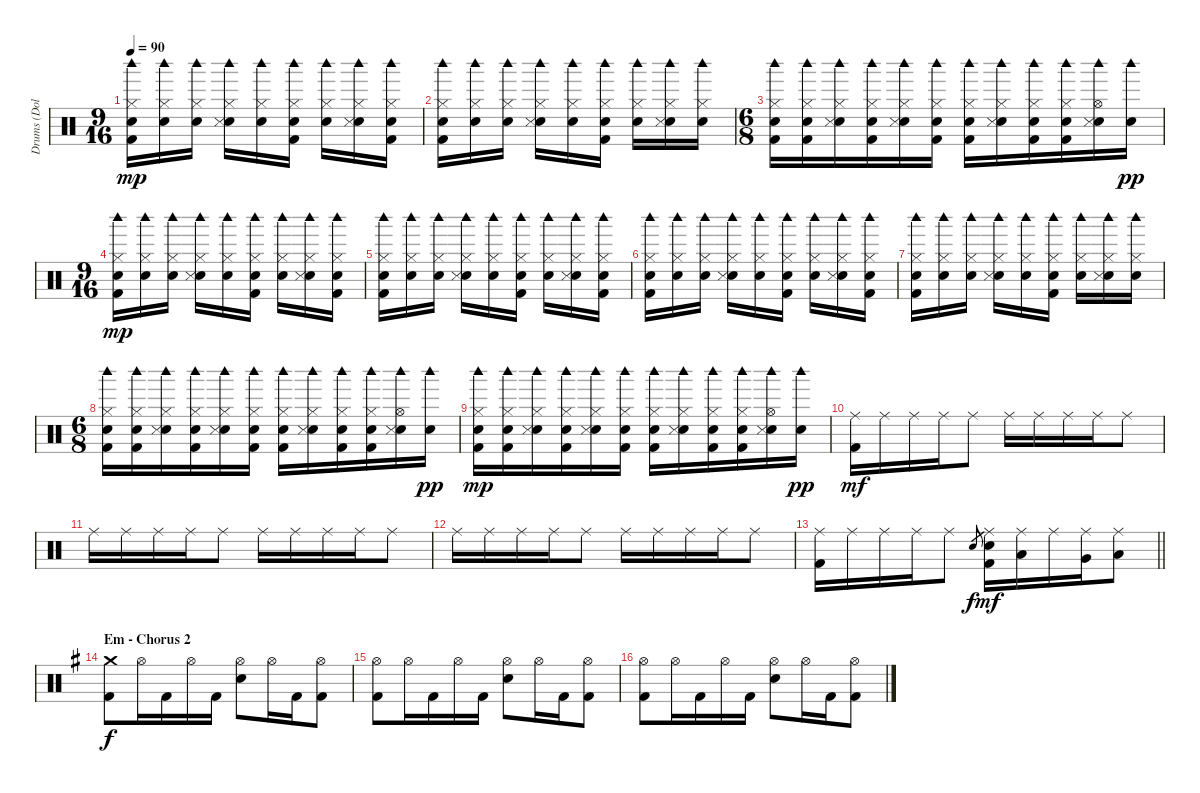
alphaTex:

\track ("Drums (Dolmayan)" "Drums (Dol") {instrument percussion}
\staff {score}
\articulation defaults
\ts (9 16)
\tempo 90
\clef neutral
\ks aminor
("Woodblock high (hit)" "Hand Clap (hit)" "Hi-Hat (closed)" "Kick (hit) 2").16{dy mp} ("Woodblock high (hit)" "Hand Clap (hit)" "Hi-Hat (closed)").16 ("Woodblock high (hit)" "Hand Clap (hit)" "Hi-Hat (closed)").16 ("Woodblock high (hit)" "Hand Clap (hit)" "Hi-Hat (closed)" "Snare (side stick) 3").16 ("Woodblock high (hit)" "Hand Clap (hit)" "Hi-Hat (closed)").16 ("Woodblock high (hit)" "Hand Clap (hit)" "Hi-Hat (closed)" "Kick (hit) 2").16 ("Woodblock high (hit)" "Hand Clap (hit)" "Hi-Hat (closed)").16 ("Woodblock high (hit)" "Hand Clap (hit)" "Hi-Hat (closed)" "Snare (side stick) 3").16 ("Woodblock high (hit)" "Hand Clap (hit)" "Hi-Hat (closed)" "Kick (hit) 2").16 |
("Woodblock high (hit)" "Hand Clap (hit)" "Hi-Hat (closed)" "Kick (hit) 2").16 ("Woodblock high (hit)" "Hand Clap (hit)" "Hi-Hat (closed)").16 ("Woodblock high (hit)" "Hand Clap (hit)" "Hi-Hat (closed)").16 ("Woodblock high (hit)" "Hand Clap (hit)" "Hi-Hat (closed)" "Snare (side stick) 3").16 ("Woodblock high (hit)" "Hand Clap (hit)" "Hi-Hat (closed)").16 ("Woodblock high (hit)" "Hand Clap (hit)" "Hi-Hat (closed)" "Kick (hit) 2").16 ("Woodblock high (hit)" "Hand Clap (hit)" "Hi-Hat (closed)").16 ("Woodblock high (hit)" "Hand Clap (hit)" "Hi-Hat (closed)" "Snare (side stick) 3").16 ("Woodblock high (hit)" "Hand Clap (hit)" "Hi-Hat (closed)").16 |
\ts (6 8)
("Woodblock high (hit)" "Hand Clap (hit)" "Hi-Hat (closed)" "Kick (hit) 2").16 ("Woodblock high (hit)" "Hand Clap (hit)" "Hi-Hat (closed)" "Kick (hit) 2").16 ("Woodblock high (hit)" "Hand Clap (hit)" "Hi-Hat (closed)" "Snare (side stick) 3").16 ("Woodblock high (hit)" "Hand Clap (hit)" "Hi-Hat (closed)" "Kick (hit) 2").16 ("Woodblock high (hit)" "Hand Clap (hit)" "Hi-Hat (closed)" "Snare (side stick) 3").16 ("Woodblock high (hit)" "Hand Clap (hit)" "Hi-Hat (closed)" "Kick (hit) 2").16 ("Woodblock high (hit)" "Hand Clap (hit)" "Hi-Hat (closed)" "Kick (hit) 2").16 ("Woodblock high (hit)" "Hand Clap (hit)" "Hi-Hat (closed)" "Snare (side stick) 3").16 ("Woodblock high (hit)" "Hand Clap (hit)" "Hi-Hat (closed)" "Kick (hit) 2").16 ("Woodblock high (hit)" "Hand Clap (hit)" "Hi-Hat (closed)" "Kick (hit) 2").16 ("Woodblock high (hit)" "Hand Clap (hit)" "Hi-Hat (open)" "Snare (side stick) 3").16 ("Woodblock high (hit)" "Hand Clap (hit)").16{dy pp} |
\ts (9 16)
("Woodblock high (hit)" "Hand Clap (hit)" "Hi-Hat (closed)" "Kick (hit) 2").16{dy mp} ("Woodblock high (hit)" "Hand Clap (hit)" "Hi-Hat (closed)").16 ("Woodblock high (hit)" "Hand Clap (hit)" "Hi-Hat (closed)").16 ("Woodblock high (hit)" "Hand Clap (hit)" "Hi-Hat (closed)" "Snare (side stick) 3").16 ("Woodblock high (hit)" "Hand Clap (hit)" "Hi-Hat (closed)").16 ("Woodblock high (hit)" "Hand Clap (hit)" "Hi-Hat (closed)" "Kick (hit) 2").16 ("Woodblock high (hit)" "Hand Clap (hit)" "Hi-Hat (closed)").16 ("Woodblock high (hit)" "Hand Clap (hit)" "Hi-Hat (closed)" "Snare (side stick) 3").16 ("Woodblock high (hit)" "Hand Clap (hit)" "Hi-Hat (closed)" "Kick (hit) 2").16 |
("Woodblock high (hit)" "Hand Clap (hit)" "Hi-Hat (closed)" "Kick (hit) 2").16 ("Woodblock high (hit)" "Hand Clap (hit)" "Hi-Hat (closed)").16 ("Woodblock high (hit)" "Hand Clap (hit)" "Hi-Hat (closed)").16 ("Woodblock high (hit)" "Hand Clap (hit)" "Hi-Hat (closed)" "Snare (side stick) 3").16 ("Woodblock high (hit)" "Hand Clap (hit)" "Hi-Hat (closed)").16 ("Woodblock high (hit)" "Hand Clap (hit)" "Hi-Hat (closed)" "Kick (hit) 2").16 ("Woodblock high (hit)" "Hand Clap (hit)" "Hi-Hat (closed)").16 ("Woodblock high (hit)" "Hand Clap (hit)" "Hi-Hat (closed)" "Snare (side stick) 3").16 ("Woodblock high (hit)" "Hand Clap (hit)" "Hi-Hat (closed)" "Kick (hit) 2").16 |
("Woodblock high (hit)" "Hand Clap (hit)" "Hi-Hat (closed)" "Kick (hit) 2").16 ("Woodblock high (hit)" "Hand Clap (hit)" "Hi-Hat (closed)").16 ("Woodblock high (hit)" "Hand Clap (hit)" "Hi-Hat (closed)").16 ("Woodblock high (hit)" "Hand Clap (hit)" "Hi-Hat (closed)" "Snare (side stick) 3").16 ("Woodblock high (hit)" "Hand Clap (hit)" "Hi-Hat (closed)").16 ("Woodblock high (hit)" "Hand Clap (hit)" "Hi-Hat (closed)" "Kick (hit) 2").16 ("Woodblock high (hit)" "Hand Clap (hit)" "Hi-Hat (closed)").16 ("Woodblock high (hit)" "Hand Clap (hit)" "Hi-Hat (closed)" "Snare (side stick) 3").16 ("Woodblock high (hit)" "Hand Clap (hit)" "Hi-Hat (closed)" "Kick (hit) 2").16 |
("Woodblock high (hit)" "Hand Clap (hit)" "Hi-Hat (closed)" "Kick (hit) 2").16 ("Woodblock high (hit)" "Hand Clap (hit)" "Hi-Hat (closed)").16 ("Woodblock high (hit)" "Hand Clap (hit)" "Hi-Hat (closed)").16 ("Woodblock high (hit)" "Hand Clap (hit)" "Hi-Hat (closed)" "Snare (side stick) 3").16 ("Woodblock high (hit)" "Hand Clap (hit)" "Hi-Hat (closed)").16 ("Woodblock high (hit)" "Hand Clap (hit)" "Hi-Hat (closed)" "Kick (hit) 2").16 ("Woodblock high (hit)" "Hand Clap (hit)" "Hi-Hat (closed)").16 ("Woodblock high (hit)" "Hand Clap (hit)" "Hi-Hat (closed)" "Snare (side stick) 3").16 ("Woodblock high (hit)" "Hand Clap (hit)" "Hi-Hat (closed)").16 |
\ts (6 8)
("Woodblock high (hit)" "Hand Clap (hit)" "Hi-Hat (closed)" "Kick (hit) 2").16 ("Woodblock high (hit)" "Hand Clap (hit)" "Hi-Hat (closed)" "Kick (hit) 2").16 ("Woodblock high (hit)" "Hand Clap (hit)" "Hi-Hat (closed)" "Snare (side stick) 3").16 ("Woodblock high (hit)" "Hand Clap (hit)" "Hi-Hat (closed)" "Kick (hit) 2").16 ("Woodblock high (hit)" "Hand Clap (hit)" "Hi-Hat (closed)" "Snare (side stick) 3").16 ("Woodblock high (hit)" "Hand Clap (hit)" "Hi-Hat (closed)" "Kick (hit) 2").16 ("Woodblock high (hit)" "Hand Clap (hit)" "Hi-Hat (closed)" "Kick (hit) 2").16 ("Woodblock high (hit)" "Hand Clap (hit)" "Hi-Hat (closed)" "Snare (side stick) 3").16 ("Woodblock high (hit)" "Hand Clap (hit)" "Hi-Hat (closed)" "Kick (hit) 2").16 ("Woodblock high (hit)" "Hand Clap (hit)" "Hi-Hat (closed)" "Kick (hit) 2").16 ("Woodblock high (hit)" "Hand Clap (hit)" "Hi-Hat (open)" "Snare (side stick) 3").16 ("Woodblock high (hit)" "Hand Clap (hit)").16{dy pp} |
("Woodblock high (hit)" "Hand Clap (hit)" "Hi-Hat (closed)" "Kick (hit) 2").16{dy mp} ("Woodblock high (hit)" "Hand Clap (hit)" "Hi-Hat (closed)" "Kick (hit) 2").16 ("Woodblock high (hit)" "Hand Clap (hit)" "Hi-Hat (closed)" "Snare (side stick) 3").16 ("Woodblock high (hit)" "Hand Clap (hit)" "Hi-Hat (closed)" "Kick (hit) 2").16 ("Woodblock high (hit)" "Hand Clap (hit)" "Hi-Hat (closed)" "Snare (side stick) 3").16 ("Woodblock high (hit)" "Hand Clap (hit)" "Hi-Hat (closed)" "Kick (hit) 2").16 ("Woodblock high (hit)" "Hand Clap (hit)" "Hi-Hat (closed)" "Kick (hit) 2").16 ("Woodblock high (hit)" "Hand Clap (hit)" "Hi-Hat (closed)" "Snare (side stick) 3").16 ("Woodblock high (hit)" "Hand Clap (hit)" "Hi-Hat (closed)" "Kick (hit) 2").16 ("Woodblock high (hit)" "Hand Clap (hit)" "Hi-Hat (closed)" "Kick (hit) 2").16 ("Woodblock high (hit)" "Hand Clap (hit)" "Hi-Hat (open)" "Snare (side stick) 3").16 ("Woodblock high (hit)" "Hand Clap (hit)").16{dy pp} |
("Ride (middle)" "Kick (hit) 2").16{dy mf} "Ride (middle)".16 "Ride (middle)".16 "Ride (middle)".16 "Ride (middle)".8 "Ride (middle)".16 "Ride (middle)".16 "Ride (middle)".16 "Ride (middle)".16 "Ride (middle)".8 |
"Ride (middle)".16 "Ride (middle)".16 "Ride (middle)".16 "Ride (middle)".16 "Ride (middle)".8 "Ride (middle)".16 "Ride (middle)".16 "Ride (middle)".16 "Ride (middle)".16 "Ride (middle)".8 |
"Ride (middle)".16 "Ride (middle)".16 "Ride (middle)".16 "Ride (middle)".16 "Ride (middle)".8 "Ride (middle)".16 "Ride (middle)".16 "Ride (middle)".16 "Ride (middle)".16 "Ride (middle)".8 |
\barLineRight lightlight
("Ride (middle)" "Kick (hit) 2").16 "Ride (middle)".16 "Ride (middle)".16 "Ride (middle)".16 "Ride (middle)".8 "Electric Snare (hit)".8{gr dy f} ("Ride (middle)" "Electric Snare (hit)" "Kick (hit) 2").16{dy mf} ("Ride (middle)" "Low Tom (hit)").16 "Ride (middle)".16 ("Ride (middle)" "Very Low Tom (hit)").16 ("Ride (middle)" "Low Floor Tom (hit)").8 |
\section ("" "Em - Chorus 2")
\ks eminor
("Crash medium (hit)" "Kick (hit) 2").8{dy f} "Hi-Hat (open)".16 "Kick (hit) 2".16 "Hi-Hat (open)".16 "Kick (hit) 2".16 ("Hi-Hat (open)" "Electric Snare (hit)").8 "Hi-Hat (open)".16 "Kick (hit) 2".16 ("Hi-Hat (open)" "Kick (hit) 2").8 |
("Hi-Hat (open)" "Kick (hit) 2").8 "Hi-Hat (open)".16 "Kick (hit) 2".16 "Hi-Hat (open)".16 "Kick (hit) 2".16 ("Hi-Hat (open)" "Electric Snare (hit)").8 "Hi-Hat (open)".16 "Kick (hit) 2".16 ("Hi-Hat (open)" "Kick (hit) 2").8 |
("Hi-Hat (open)" "Kick (hit) 2").8 "Hi-Hat (open)".16 "Kick (hit) 2".16 "Hi-Hat (open)".16 "Kick (hit) 2".16 ("Hi-Hat (open)" "Electric Snare (hit)").8 "Hi-Hat (open)".16 "Kick (hit) 2".16 ("Hi-Hat (open)" "Kick (hit) 2").8
